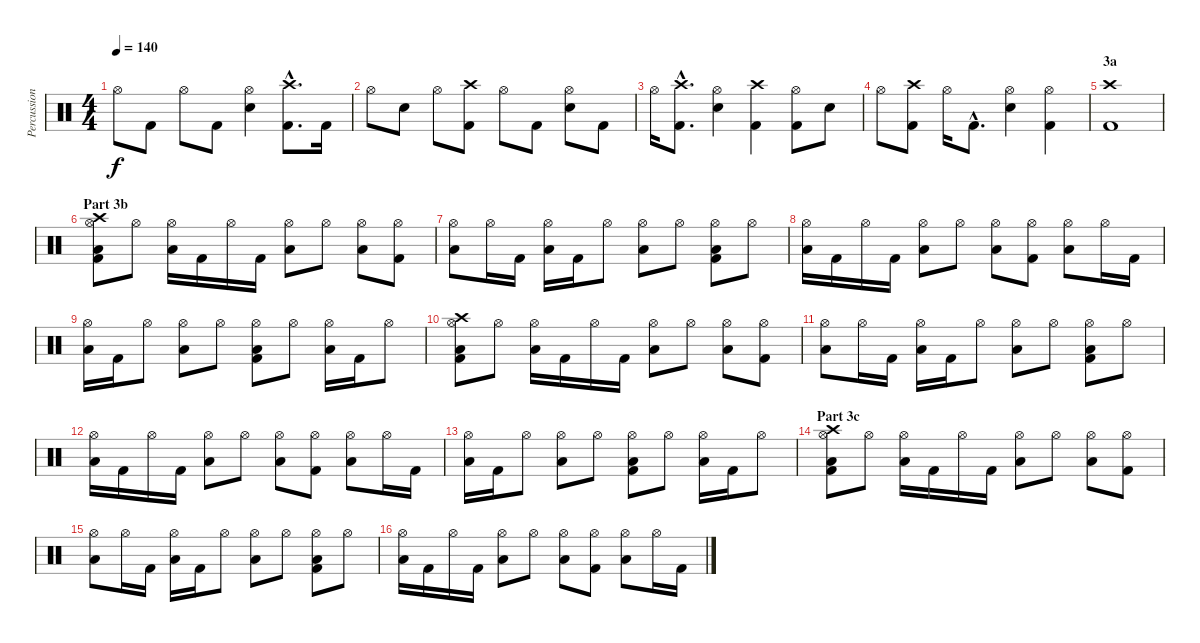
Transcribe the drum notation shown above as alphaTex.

\track ("Percussion" "Percussion") {instrument percussion}
\staff {score}
\articulation defaults
\ts (4 4)
\tempo 140
\clef neutral
\ks c "Hi-Hat (open)".8{dy f} "Kick (hit) 2".8 "Hi-Hat (open)".8 "Kick (hit) 2".8
("Hi-Hat (open)" "Electric Snare (hit)").4 ("Crash high (hit)"{hac} "Kick (hit) 2"{hac}).8{d} "Kick (hit) 2".16 |
"Hi-Hat (open)".8 "Electric Snare (hit)".8 "Hi-Hat (open)".8 ("Crash high (hit)" "Kick (hit) 2").8 "Hi-Hat (open)".8 "Kick (hit) 2".8 ("Hi-Hat (open)" "Electric Snare (hit)").8 "Kick (hit) 2".8 |
"Hi-Hat (open)".16 ("Crash high (hit)"{hac} "Kick (hit) 2"{hac}).8{d} ("Hi-Hat (open)" "Electric Snare (hit)").4 ("Crash high (hit)" "Kick (hit) 2").4 ("Hi-Hat (open)" "Kick (hit) 2").8 "Electric Snare (hit)".8 |
"Hi-Hat (open)".8 ("Crash high (hit)" "Kick (hit) 2").8 "Hi-Hat (open)".16 "Kick (hit) 2"{hac}.8{d} ("Hi-Hat (open)" "Electric Snare (hit)").4 ("Hi-Hat (open)" "Kick (hit) 2").4 |
\section ("" "3a")
("Crash high (hit)" "Kick (hit) 2").1 |
\section ("" "Part 3b")
("Crash high (hit)" "Hi-Hat (open)" "Low Floor Tom (hit)" "Kick (hit) 2").8 "Hi-Hat (open)".8 ("Hi-Hat (open)" "Low Floor Tom (hit)").16 "Kick (hit) 2".16 "Hi-Hat (open)".16 "Kick (hit) 2".16 ("Hi-Hat (open)" "Low Floor Tom (hit)").8 "Hi-Hat (open)".8 ("Hi-Hat (open)" "Low Floor Tom (hit)").8 ("Hi-Hat (open)" "Kick (hit) 2").8 |
("Hi-Hat (open)" "Low Floor Tom (hit)").8 "Hi-Hat (open)".16 "Kick (hit) 2".16 ("Hi-Hat (open)" "Low Floor Tom (hit)").16 "Kick (hit) 2".16 "Hi-Hat (open)".8 ("Hi-Hat (open)" "Low Floor Tom (hit)").8 "Hi-Hat (open)".8 ("Hi-Hat (open)" "Low Floor Tom (hit)" "Kick (hit) 2").8 "Hi-Hat (open)".8 |
("Hi-Hat (open)" "Low Floor Tom (hit)").16 "Kick (hit) 2".16 "Hi-Hat (open)".16 "Kick (hit) 2".16 ("Hi-Hat (open)" "Low Floor Tom (hit)").8 "Hi-Hat (open)".8 ("Hi-Hat (open)" "Low Floor Tom (hit)").8 ("Hi-Hat (open)" "Kick (hit) 2").8 ("Hi-Hat (open)" "Low Floor Tom (hit)").8 "Hi-Hat (open)".16 "Kick (hit) 2".16 |
("Hi-Hat (open)" "Low Floor Tom (hit)").16 "Kick (hit) 2".16 "Hi-Hat (open)".8 ("Hi-Hat (open)" "Low Floor Tom (hit)").8 "Hi-Hat (open)".8 ("Hi-Hat (open)" "Low Floor Tom (hit)" "Kick (hit) 2").8 "Hi-Hat (open)".8 ("Hi-Hat (open)" "Low Floor Tom (hit)").16 "Kick (hit) 2".16 "Hi-Hat (open)".8 |
("Crash high (hit)" "Hi-Hat (open)" "Low Floor Tom (hit)" "Kick (hit) 2").8 "Hi-Hat (open)".8 ("Hi-Hat (open)" "Low Floor Tom (hit)").16 "Kick (hit) 2".16 "Hi-Hat (open)".16 "Kick (hit) 2".16 ("Hi-Hat (open)" "Low Floor Tom (hit)").8 "Hi-Hat (open)".8 ("Hi-Hat (open)" "Low Floor Tom (hit)").8 ("Hi-Hat (open)" "Kick (hit) 2").8 |
("Hi-Hat (open)" "Low Floor Tom (hit)").8 "Hi-Hat (open)".16 "Kick (hit) 2".16 ("Hi-Hat (open)" "Low Floor Tom (hit)").16 "Kick (hit) 2".16 "Hi-Hat (open)".8 ("Hi-Hat (open)" "Low Floor Tom (hit)").8 "Hi-Hat (open)".8 ("Hi-Hat (open)" "Low Floor Tom (hit)" "Kick (hit) 2").8 "Hi-Hat (open)".8 |
("Hi-Hat (open)" "Low Floor Tom (hit)").16 "Kick (hit) 2".16 "Hi-Hat (open)".16 "Kick (hit) 2".16 ("Hi-Hat (open)" "Low Floor Tom (hit)").8 "Hi-Hat (open)".8 ("Hi-Hat (open)" "Low Floor Tom (hit)").8 ("Hi-Hat (open)" "Kick (hit) 2").8 ("Hi-Hat (open)" "Low Floor Tom (hit)").8 "Hi-Hat (open)".16 "Kick (hit) 2".16 |
("Hi-Hat (open)" "Low Floor Tom (hit)").16 "Kick (hit) 2".16 "Hi-Hat (open)".8 ("Hi-Hat (open)" "Low Floor Tom (hit)").8 "Hi-Hat (open)".8 ("Hi-Hat (open)" "Low Floor Tom (hit)" "Kick (hit) 2").8 "Hi-Hat (open)".8 ("Hi-Hat (open)" "Low Floor Tom (hit)").16 "Kick (hit) 2".16 "Hi-Hat (open)".8 |
\section ("" "Part 3c")
("Crash high (hit)" "Hi-Hat (open)" "Low Floor Tom (hit)" "Kick (hit) 2").8 "Hi-Hat (open)".8 ("Hi-Hat (open)" "Low Floor Tom (hit)").16 "Kick (hit) 2".16 "Hi-Hat (open)".16 "Kick (hit) 2".16 ("Hi-Hat (open)" "Low Floor Tom (hit)").8 "Hi-Hat (open)".8 ("Hi-Hat (open)" "Low Floor Tom (hit)").8 ("Hi-Hat (open)" "Kick (hit) 2").8 |
("Hi-Hat (open)" "Low Floor Tom (hit)").8 "Hi-Hat (open)".16 "Kick (hit) 2".16 ("Hi-Hat (open)" "Low Floor Tom (hit)").16 "Kick (hit) 2".16 "Hi-Hat (open)".8 ("Hi-Hat (open)" "Low Floor Tom (hit)").8 "Hi-Hat (open)".8 ("Hi-Hat (open)" "Low Floor Tom (hit)" "Kick (hit) 2").8 "Hi-Hat (open)".8 |
("Hi-Hat (open)" "Low Floor Tom (hit)").16 "Kick (hit) 2".16 "Hi-Hat (open)".16 "Kick (hit) 2".16 ("Hi-Hat (open)" "Low Floor Tom (hit)").8 "Hi-Hat (open)".8 ("Hi-Hat (open)" "Low Floor Tom (hit)").8 ("Hi-Hat (open)" "Kick (hit) 2").8 ("Hi-Hat (open)" "Low Floor Tom (hit)").8 "Hi-Hat (open)".16 "Kick (hit) 2".16
